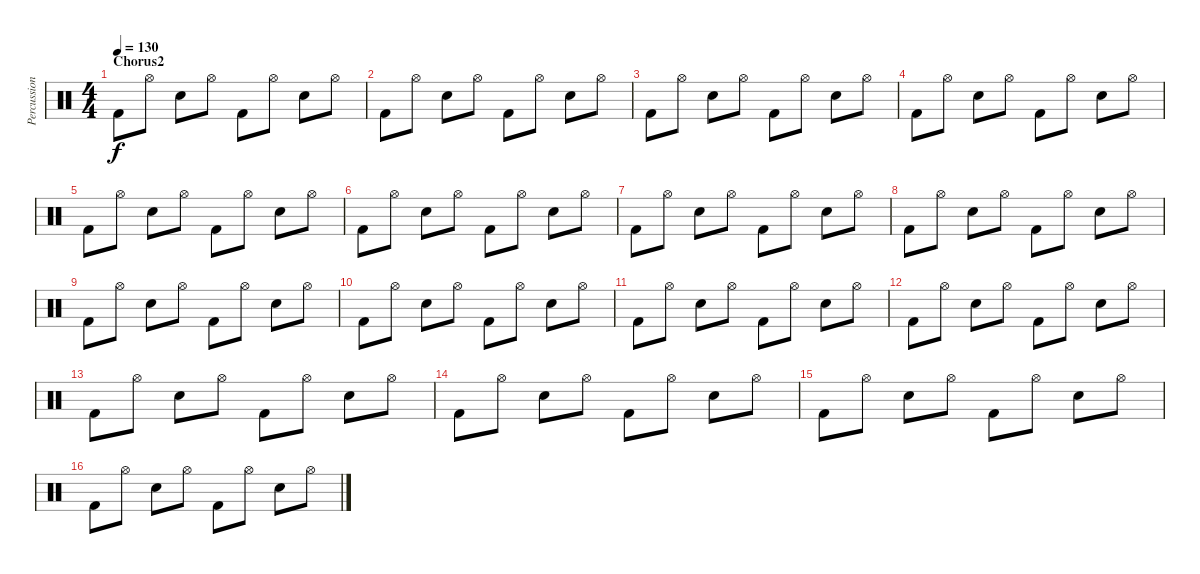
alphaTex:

\track ("Percussion" "Percussion") {instrument percussion}
\staff {score}
\articulation defaults
\ts (4 4)
\section ("" "Chorus2")
\tempo 130
\clef neutral
\ks c "Kick (hit) 2".8{dy f} "Hi-Hat (open)".8 "Electric Snare (hit)".8 "Hi-Hat (open)".8 "Kick (hit) 2".8 "Hi-Hat (open)".8 "Electric Snare (hit)".8 "Hi-Hat (open)".8
|
"Kick (hit) 2".8 "Hi-Hat (open)".8 "Electric Snare (hit)".8 "Hi-Hat (open)".8 "Kick (hit) 2".8 "Hi-Hat (open)".8 "Electric Snare (hit)".8 "Hi-Hat (open)".8 |
"Kick (hit) 2".8 "Hi-Hat (open)".8 "Electric Snare (hit)".8 "Hi-Hat (open)".8 "Kick (hit) 2".8 "Hi-Hat (open)".8 "Electric Snare (hit)".8 "Hi-Hat (open)".8 |
"Kick (hit) 2".8 "Hi-Hat (open)".8 "Electric Snare (hit)".8 "Hi-Hat (open)".8 "Kick (hit) 2".8 "Hi-Hat (open)".8 "Electric Snare (hit)".8 "Hi-Hat (open)".8 |
"Kick (hit) 2".8 "Hi-Hat (open)".8 "Electric Snare (hit)".8 "Hi-Hat (open)".8 "Kick (hit) 2".8 "Hi-Hat (open)".8 "Electric Snare (hit)".8 "Hi-Hat (open)".8 |
"Kick (hit) 2".8 "Hi-Hat (open)".8 "Electric Snare (hit)".8 "Hi-Hat (open)".8 "Kick (hit) 2".8 "Hi-Hat (open)".8 "Electric Snare (hit)".8 "Hi-Hat (open)".8 |
"Kick (hit) 2".8 "Hi-Hat (open)".8 "Electric Snare (hit)".8 "Hi-Hat (open)".8 "Kick (hit) 2".8 "Hi-Hat (open)".8 "Electric Snare (hit)".8 "Hi-Hat (open)".8 |
"Kick (hit) 2".8 "Hi-Hat (open)".8 "Electric Snare (hit)".8 "Hi-Hat (open)".8 "Kick (hit) 2".8 "Hi-Hat (open)".8 "Electric Snare (hit)".8 "Hi-Hat (open)".8 |
"Kick (hit) 2".8 "Hi-Hat (open)".8 "Electric Snare (hit)".8 "Hi-Hat (open)".8 "Kick (hit) 2".8 "Hi-Hat (open)".8 "Electric Snare (hit)".8 "Hi-Hat (open)".8 |
"Kick (hit) 2".8 "Hi-Hat (open)".8 "Electric Snare (hit)".8 "Hi-Hat (open)".8 "Kick (hit) 2".8 "Hi-Hat (open)".8 "Electric Snare (hit)".8 "Hi-Hat (open)".8 |
"Kick (hit) 2".8 "Hi-Hat (open)".8 "Electric Snare (hit)".8 "Hi-Hat (open)".8 "Kick (hit) 2".8 "Hi-Hat (open)".8 "Electric Snare (hit)".8 "Hi-Hat (open)".8 |
"Kick (hit) 2".8 "Hi-Hat (open)".8 "Electric Snare (hit)".8 "Hi-Hat (open)".8 "Kick (hit) 2".8 "Hi-Hat (open)".8 "Electric Snare (hit)".8 "Hi-Hat (open)".8 |
"Kick (hit) 2".8 "Hi-Hat (open)".8 "Electric Snare (hit)".8 "Hi-Hat (open)".8 "Kick (hit) 2".8 "Hi-Hat (open)".8 "Electric Snare (hit)".8 "Hi-Hat (open)".8 |
"Kick (hit) 2".8 "Hi-Hat (open)".8 "Electric Snare (hit)".8 "Hi-Hat (open)".8 "Kick (hit) 2".8 "Hi-Hat (open)".8 "Electric Snare (hit)".8 "Hi-Hat (open)".8 |
"Kick (hit) 2".8 "Hi-Hat (open)".8 "Electric Snare (hit)".8 "Hi-Hat (open)".8 "Kick (hit) 2".8 "Hi-Hat (open)".8 "Electric Snare (hit)".8 "Hi-Hat (open)".8 |
"Kick (hit) 2".8 "Hi-Hat (open)".8 "Electric Snare (hit)".8 "Hi-Hat (open)".8 "Kick (hit) 2".8 "Hi-Hat (open)".8 "Electric Snare (hit)".8 "Hi-Hat (open)".8
